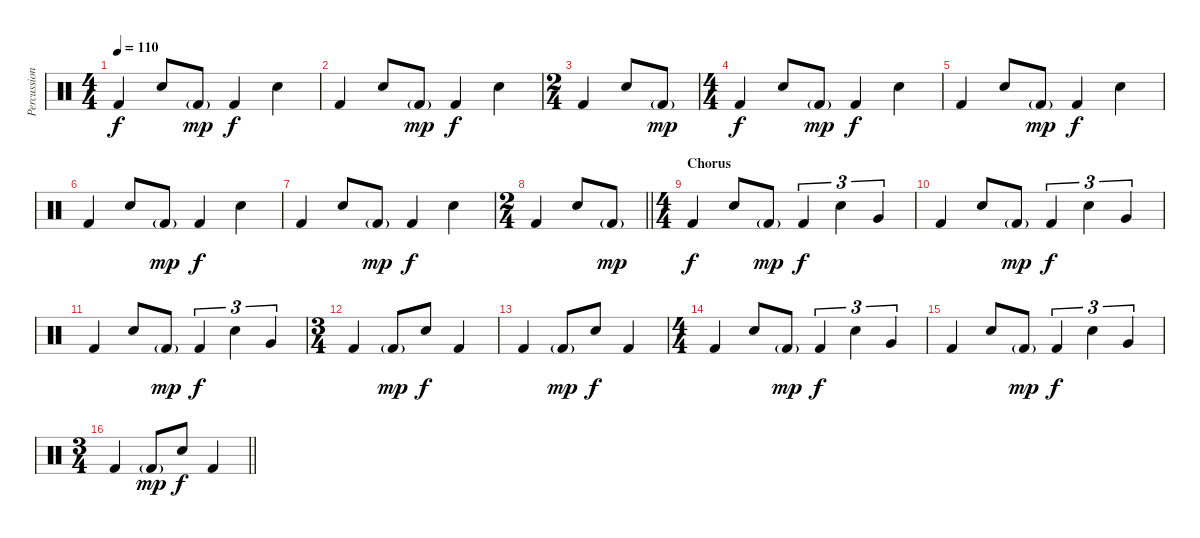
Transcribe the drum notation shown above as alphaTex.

\track ("Percussion" "Percussion") {instrument percussion}
\staff {score}
\articulation defaults
\ts (4 4)
\tempo 110
\clef neutral
\ks c "Kick (hit) 2".4{dy f} "Snare (hit) 2".8 "Kick (hit) 2"{g}.8{dy mp} "Kick (hit) 2".4{dy f} "Snare (hit) 2".4
|
"Kick (hit) 2".4 "Snare (hit) 2".8 "Kick (hit) 2"{g}.8{dy mp} "Kick (hit) 2".4{dy f} "Snare (hit) 2".4 |
\ts (2 4)
"Kick (hit) 2".4 "Snare (hit) 2".8 "Kick (hit) 2"{g}.8{dy mp} |
\ts (4 4)
"Kick (hit) 2".4{dy f} "Snare (hit) 2".8 "Kick (hit) 2"{g}.8{dy mp} "Kick (hit) 2".4{dy f} "Snare (hit) 2".4 |
"Kick (hit) 2".4 "Snare (hit) 2".8 "Kick (hit) 2"{g}.8{dy mp} "Kick (hit) 2".4{dy f} "Snare (hit) 2".4 |
"Kick (hit) 2".4 "Snare (hit) 2".8 "Kick (hit) 2"{g}.8{dy mp} "Kick (hit) 2".4{dy f} "Snare (hit) 2".4 |
"Kick (hit) 2".4 "Snare (hit) 2".8 "Kick (hit) 2"{g}.8{dy mp} "Kick (hit) 2".4{dy f} "Snare (hit) 2".4 |
\ts (2 4)
\barLineRight lightlight "Kick (hit) 2".4 "Snare (hit) 2".8 "Kick (hit) 2"{g}.8{dy mp}
|
\ts (4 4)
\section ("" "Chorus")
"Kick (hit) 2".4{dy f} "Snare (hit) 2".8 "Kick (hit) 2"{g}.8{dy mp} "Kick (hit) 2".4{tu (3 2) dy f} "Snare (hit) 2".4{tu (3 2)} "Very Low Tom (hit)".4{tu (3 2)} |
"Kick (hit) 2".4 "Snare (hit) 2".8 "Kick (hit) 2"{g}.8{dy mp} "Kick (hit) 2".4{tu (3 2) dy f} "Snare (hit) 2".4{tu (3 2)} "Very Low Tom (hit)".4{tu (3 2)} |
"Kick (hit) 2".4 "Snare (hit) 2".8 "Kick (hit) 2"{g}.8{dy mp} "Kick (hit) 2".4{tu (3 2) dy f} "Snare (hit) 2".4{tu (3 2)} "Very Low Tom (hit)".4{tu (3 2)} |
\ts (3 4)
"Kick (hit) 2".4 "Kick (hit) 2"{g}.8{dy mp} "Snare (hit) 2".8{dy f} "Kick (hit) 2".4 |
"Kick (hit) 2".4 "Kick (hit) 2"{g}.8{dy mp} "Snare (hit) 2".8{dy f} "Kick (hit) 2".4 |
\ts (4 4)
"Kick (hit) 2".4 "Snare (hit) 2".8 "Kick (hit) 2"{g}.8{dy mp} "Kick (hit) 2".4{tu (3 2) dy f} "Snare (hit) 2".4{tu (3 2)} "Very Low Tom (hit)".4{tu (3 2)} |
"Kick (hit) 2".4 "Snare (hit) 2".8 "Kick (hit) 2"{g}.8{dy mp} "Kick (hit) 2".4{tu (3 2) dy f} "Snare (hit) 2".4{tu (3 2)} "Very Low Tom (hit)".4{tu (3 2)} |
\ts (3 4)
\barLineRight lightlight "Kick (hit) 2".4 "Kick (hit) 2"{g}.8{dy mp} "Snare (hit) 2".8{dy f} "Kick (hit) 2".4
